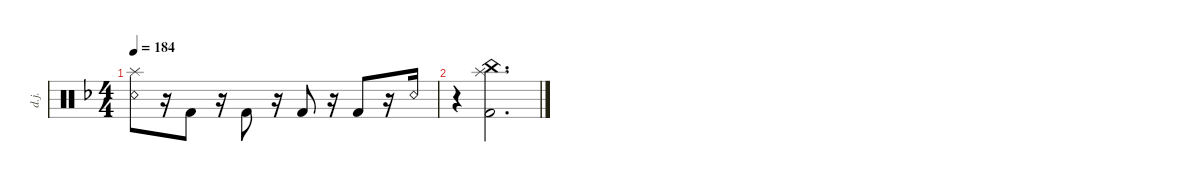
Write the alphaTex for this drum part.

\defaultSystemsLayout 4
\hideDynamics
\bracketExtendMode nobrackets
\otherSystemsTrackNameOrientation horizontal
\track ("Drumkit Jason" "d.j.") {instrument percussion}
\staff {score}
\articulation defaults
\ts (4 4)
\tempo 184
\clef neutral
\ks dminor
("Snare (rim shot)"{acc forcenatural} "Splash (hit)"{acc forcenatural}).8{dy ff beam Down} r.16{beam Down} "Kick (hit) 2"{acc forcenatural}.8{beam Down} r.16{beam Down} "Kick (hit) 2"{acc forcenatural}.8{beam Up} r.16{beam Up} "Kick (hit) 2"{acc forcenatural}.8{beam Up} r.16{beam Up} "Kick (hit) 2"{acc forcenatural}.8{beam Up} r.16{beam Up} "Snare (rim shot)"{acc forcenatural}.16{beam Up} |
r.4{beam Down} ("Splash (hit)"{acc forcenatural} "China (hit)"{acc forcenatural} "Kick (hit) 2"{acc forcenatural}).2{d beam Down}
